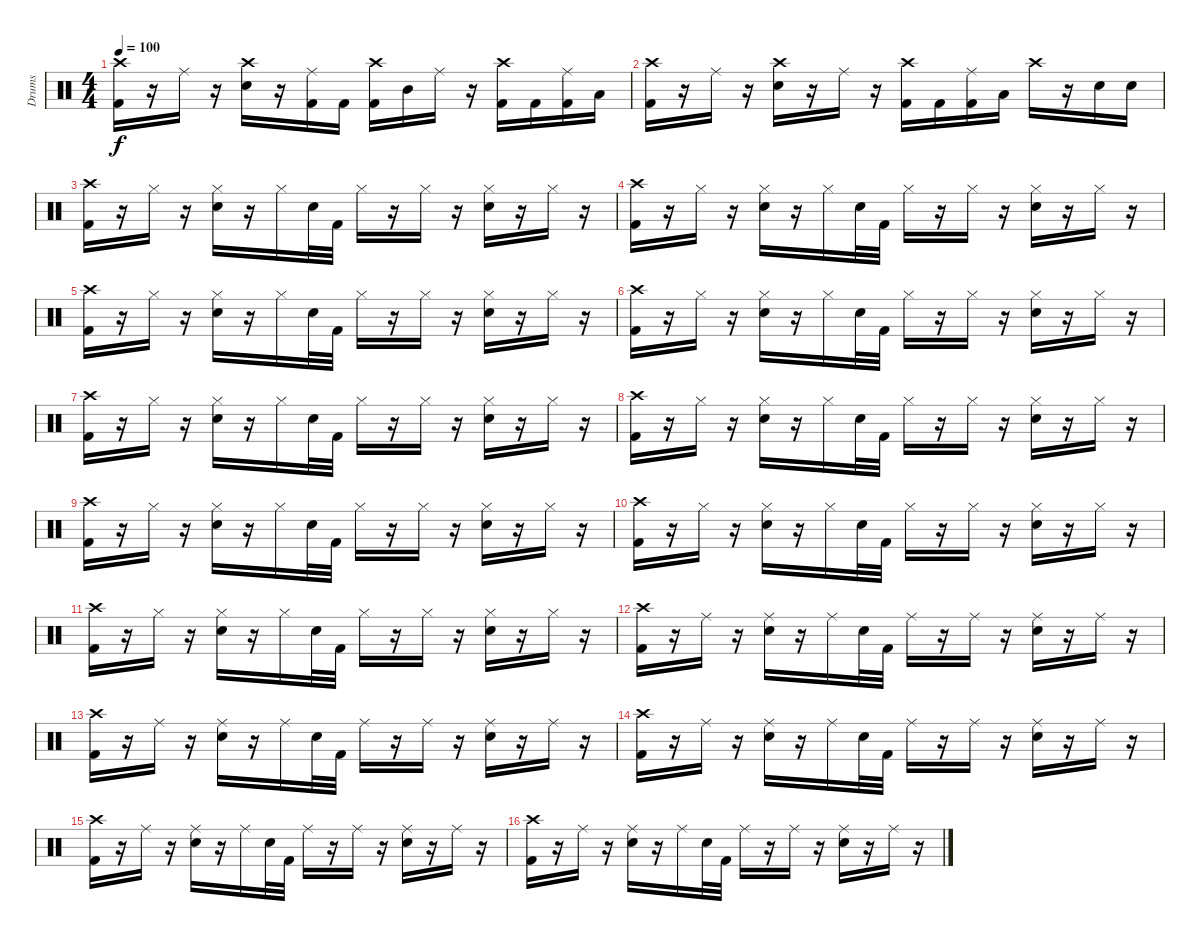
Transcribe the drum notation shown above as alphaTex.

\track ("Drums" "Drums") {instrument percussion}
\staff {score}
\articulation defaults
\ts (4 4)
\tempo 100
\clef neutral
\ks c
("Crash high (hit)" "Kick (hit) 2").16{dy f} r.16 "Ride (middle)".16 r.16 ("Crash high (hit)" "Snare (hit) 2").16 r.16 ("Ride (middle)" "Kick (hit) 2").16 "Kick (hit) 2".16 ("Crash high (hit)" "Kick (hit) 2").16 "Mid Tom (hit)".16 "Ride (middle)".16 r.16 ("Crash high (hit)" "Kick (hit) 2").16 "Kick (hit) 2".16 ("Ride (middle)" "Kick (hit) 2").16 "Low Tom (hit)".16 |
("Crash high (hit)" "Kick (hit) 2").16 r.16 "Ride (middle)".16 r.16 ("Crash high (hit)" "Snare (hit) 2").16 r.16 "Ride (middle)".16 r.16 ("Crash high (hit)" "Kick (hit) 2").16 "Kick (hit) 2".16 ("Ride (middle)" "Kick (hit) 2").16 "Low Tom (hit)".16 "Crash high (hit)".16 r.16 "Snare (hit) 2".16 "Snare (hit) 2".16 |
("Crash high (hit)" "Kick (hit) 2").16 r.16 "Hi-Hat (closed)".16 r.16 ("Hi-Hat (closed)" "Snare (hit) 2").16 r.16 "Hi-Hat (closed)".16 "Snare (hit) 2".32 "Kick (hit) 2".32 "Hi-Hat (closed)".16 r.16 "Hi-Hat (closed)".16 r.16 ("Hi-Hat (closed)" "Snare (hit) 2").16 r.16 "Hi-Hat (closed)".16 r.16 |
("Crash high (hit)" "Kick (hit) 2").16 r.16 "Hi-Hat (closed)".16 r.16 ("Hi-Hat (closed)" "Snare (hit) 2").16 r.16 "Hi-Hat (closed)".16 "Snare (hit) 2".32 "Kick (hit) 2".32 "Hi-Hat (closed)".16 r.16 "Hi-Hat (closed)".16 r.16 ("Hi-Hat (closed)" "Snare (hit) 2").16 r.16 "Hi-Hat (closed)".16 r.16 |
("Crash high (hit)" "Kick (hit) 2").16 r.16 "Hi-Hat (closed)".16 r.16 ("Hi-Hat (closed)" "Snare (hit) 2").16 r.16 "Hi-Hat (closed)".16 "Snare (hit) 2".32 "Kick (hit) 2".32 "Hi-Hat (closed)".16 r.16 "Hi-Hat (closed)".16 r.16 ("Hi-Hat (closed)" "Snare (hit) 2").16 r.16 "Hi-Hat (closed)".16 r.16 |
("Crash high (hit)" "Kick (hit) 2").16 r.16 "Hi-Hat (closed)".16 r.16 ("Hi-Hat (closed)" "Snare (hit) 2").16 r.16 "Hi-Hat (closed)".16 "Snare (hit) 2".32 "Kick (hit) 2".32 "Hi-Hat (closed)".16 r.16 "Hi-Hat (closed)".16 r.16 ("Hi-Hat (closed)" "Snare (hit) 2").16 r.16 "Hi-Hat (closed)".16 r.16 |
("Crash high (hit)" "Kick (hit) 2").16 r.16 "Hi-Hat (closed)".16 r.16 ("Hi-Hat (closed)" "Snare (hit) 2").16 r.16 "Hi-Hat (closed)".16 "Snare (hit) 2".32 "Kick (hit) 2".32 "Hi-Hat (closed)".16 r.16 "Hi-Hat (closed)".16 r.16 ("Hi-Hat (closed)" "Snare (hit) 2").16 r.16 "Hi-Hat (closed)".16 r.16 |
("Crash high (hit)" "Kick (hit) 2").16 r.16 "Hi-Hat (closed)".16 r.16 ("Hi-Hat (closed)" "Snare (hit) 2").16 r.16 "Hi-Hat (closed)".16 "Snare (hit) 2".32 "Kick (hit) 2".32 "Hi-Hat (closed)".16 r.16 "Hi-Hat (closed)".16 r.16 ("Hi-Hat (closed)" "Snare (hit) 2").16 r.16 "Hi-Hat (closed)".16 r.16 |
("Crash high (hit)" "Kick (hit) 2").16 r.16 "Hi-Hat (closed)".16 r.16 ("Hi-Hat (closed)" "Snare (hit) 2").16 r.16 "Hi-Hat (closed)".16 "Snare (hit) 2".32 "Kick (hit) 2".32 "Hi-Hat (closed)".16 r.16 "Hi-Hat (closed)".16 r.16 ("Hi-Hat (closed)" "Snare (hit) 2").16 r.16 "Hi-Hat (closed)".16 r.16 |
("Crash high (hit)" "Kick (hit) 2").16 r.16 "Hi-Hat (closed)".16 r.16 ("Hi-Hat (closed)" "Snare (hit) 2").16 r.16 "Hi-Hat (closed)".16 "Snare (hit) 2".32 "Kick (hit) 2".32 "Hi-Hat (closed)".16 r.16 "Hi-Hat (closed)".16 r.16 ("Hi-Hat (closed)" "Snare (hit) 2").16 r.16 "Hi-Hat (closed)".16 r.16 |
("Crash high (hit)" "Kick (hit) 2").16 r.16 "Hi-Hat (closed)".16 r.16 ("Hi-Hat (closed)" "Snare (hit) 2").16 r.16 "Hi-Hat (closed)".16 "Snare (hit) 2".32 "Kick (hit) 2".32 "Hi-Hat (closed)".16 r.16 "Hi-Hat (closed)".16 r.16 ("Hi-Hat (closed)" "Snare (hit) 2").16 r.16 "Hi-Hat (closed)".16 r.16 |
("Crash high (hit)" "Kick (hit) 2").16 r.16 "Ride (middle)".16 r.16 ("Ride (middle)" "Snare (hit) 2").16 r.16 "Ride (middle)".16 "Snare (hit) 2".32 "Kick (hit) 2".32 "Ride (middle)".16 r.16 "Ride (middle)".16 r.16 ("Ride (middle)" "Snare (hit) 2").16 r.16 "Ride (middle)".16 r.16 |
("Crash high (hit)" "Kick (hit) 2").16 r.16 "Ride (middle)".16 r.16 ("Ride (middle)" "Snare (hit) 2").16 r.16 "Ride (middle)".16 "Snare (hit) 2".32 "Kick (hit) 2".32 "Ride (middle)".16 r.16 "Ride (middle)".16 r.16 ("Ride (middle)" "Snare (hit) 2").16 r.16 "Ride (middle)".16 r.16 |
("Crash high (hit)" "Kick (hit) 2").16 r.16 "Ride (middle)".16 r.16 ("Ride (middle)" "Snare (hit) 2").16 r.16 "Ride (middle)".16 "Snare (hit) 2".32 "Kick (hit) 2".32 "Ride (middle)".16 r.16 "Ride (middle)".16 r.16 ("Ride (middle)" "Snare (hit) 2").16 r.16 "Ride (middle)".16 r.16 |
("Crash high (hit)" "Kick (hit) 2").16 r.16 "Ride (middle)".16 r.16 ("Ride (middle)" "Snare (hit) 2").16 r.16 "Ride (middle)".16 "Snare (hit) 2".32 "Kick (hit) 2".32 "Ride (middle)".16 r.16 "Ride (middle)".16 r.16 ("Ride (middle)" "Snare (hit) 2").16 r.16 "Ride (middle)".16 r.16 |
("Crash high (hit)" "Kick (hit) 2").16 r.16 "Ride (middle)".16 r.16 ("Ride (middle)" "Snare (hit) 2").16 r.16 "Ride (middle)".16 "Snare (hit) 2".32 "Kick (hit) 2".32 "Ride (middle)".16 r.16 "Ride (middle)".16 r.16 ("Ride (middle)" "Snare (hit) 2").16 r.16 "Ride (middle)".16 r.16
